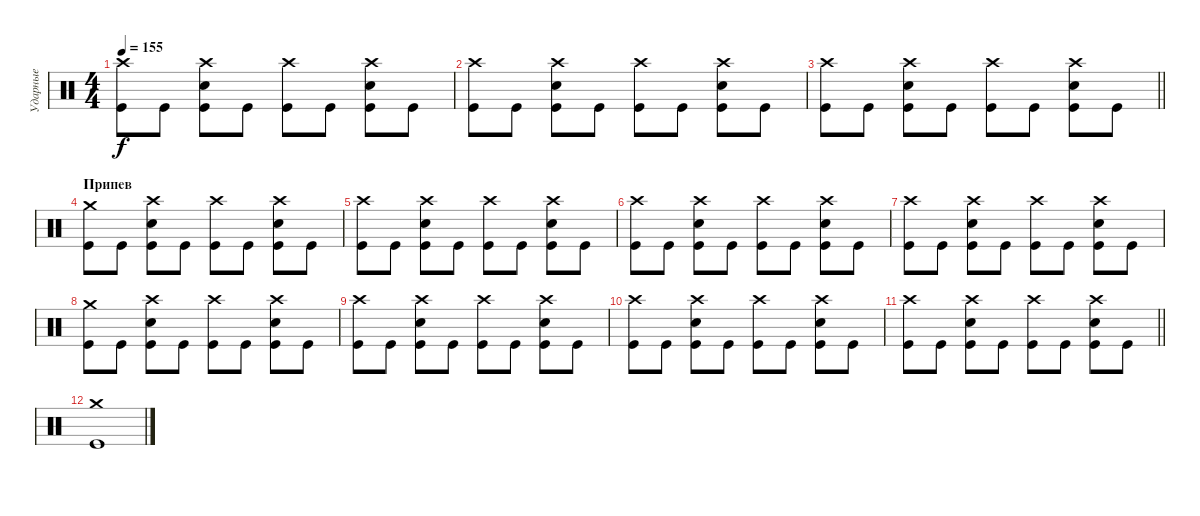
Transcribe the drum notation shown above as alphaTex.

\track ("Ударные" "Ударные") {instrument percussion}
\staff {score}
\articulation defaults
\ts (4 4)
\tempo 155
\clef neutral
\ks c
("Crash high (hit)" "Kick (hit)").8{dy f} "Kick (hit)".8 ("Crash high (hit)" "Electric Snare (hit)" "Kick (hit)").8 "Kick (hit)".8 ("Crash high (hit)" "Kick (hit)").8 "Kick (hit)".8 ("Crash high (hit)" "Electric Snare (hit)" "Kick (hit)").8 "Kick (hit)".8 |
("Crash high (hit)" "Kick (hit)").8 "Kick (hit)".8 ("Crash high (hit)" "Electric Snare (hit)" "Kick (hit)").8 "Kick (hit)".8 ("Crash high (hit)" "Kick (hit)").8 "Kick (hit)".8 ("Crash high (hit)" "Electric Snare (hit)" "Kick (hit)").8 "Kick (hit)".8 |
\barLineRight lightlight
("Crash high (hit)" "Kick (hit)").8 "Kick (hit)".8 ("Crash high (hit)" "Electric Snare (hit)" "Kick (hit)").8 "Kick (hit)".8 ("Crash high (hit)" "Kick (hit)").8 "Kick (hit)".8 ("Crash high (hit)" "Electric Snare (hit)" "Kick (hit)").8 "Kick (hit)".8 |
\section ("" "Припев")
("Crash medium (hit)" "Kick (hit)").8 "Kick (hit)".8 ("Crash high (hit)" "Electric Snare (hit)" "Kick (hit)").8 "Kick (hit)".8 ("Crash high (hit)" "Kick (hit)").8 "Kick (hit)".8 ("Crash high (hit)" "Electric Snare (hit)" "Kick (hit)").8 "Kick (hit)".8 |
("Crash high (hit)" "Kick (hit)").8 "Kick (hit)".8 ("Crash high (hit)" "Electric Snare (hit)" "Kick (hit)").8 "Kick (hit)".8 ("Crash high (hit)" "Kick (hit)").8 "Kick (hit)".8 ("Crash high (hit)" "Electric Snare (hit)" "Kick (hit)").8 "Kick (hit)".8 |
("Crash high (hit)" "Kick (hit)").8 "Kick (hit)".8 ("Crash high (hit)" "Electric Snare (hit)" "Kick (hit)").8 "Kick (hit)".8 ("Crash high (hit)" "Kick (hit)").8 "Kick (hit)".8 ("Crash high (hit)" "Electric Snare (hit)" "Kick (hit)").8 "Kick (hit)".8 |
("Crash high (hit)" "Kick (hit)").8 "Kick (hit)".8 ("Crash high (hit)" "Electric Snare (hit)" "Kick (hit)").8 "Kick (hit)".8 ("Crash high (hit)" "Kick (hit)").8 "Kick (hit)".8 ("Crash high (hit)" "Electric Snare (hit)" "Kick (hit)").8 "Kick (hit)".8 |
("Crash medium (hit)" "Kick (hit)").8 "Kick (hit)".8 ("Crash high (hit)" "Electric Snare (hit)" "Kick (hit)").8 "Kick (hit)".8 ("Crash high (hit)" "Kick (hit)").8 "Kick (hit)".8 ("Crash high (hit)" "Electric Snare (hit)" "Kick (hit)").8 "Kick (hit)".8 |
("Crash high (hit)" "Kick (hit)").8 "Kick (hit)".8 ("Crash high (hit)" "Electric Snare (hit)" "Kick (hit)").8 "Kick (hit)".8 ("Crash high (hit)" "Kick (hit)").8 "Kick (hit)".8 ("Crash high (hit)" "Electric Snare (hit)" "Kick (hit)").8 "Kick (hit)".8 |
("Crash high (hit)" "Kick (hit)").8 "Kick (hit)".8 ("Crash high (hit)" "Electric Snare (hit)" "Kick (hit)").8 "Kick (hit)".8 ("Crash high (hit)" "Kick (hit)").8 "Kick (hit)".8 ("Crash high (hit)" "Electric Snare (hit)" "Kick (hit)").8 "Kick (hit)".8 |
\barLineRight lightlight
("Crash high (hit)" "Kick (hit)").8 "Kick (hit)".8 ("Crash high (hit)" "Electric Snare (hit)" "Kick (hit)").8 "Kick (hit)".8 ("Crash high (hit)" "Kick (hit)").8 "Kick (hit)".8 ("Crash high (hit)" "Electric Snare (hit)" "Kick (hit)").8 "Kick (hit)".8 |
\section ("" " ")
("Crash medium (hit)" "Kick (hit)").1
